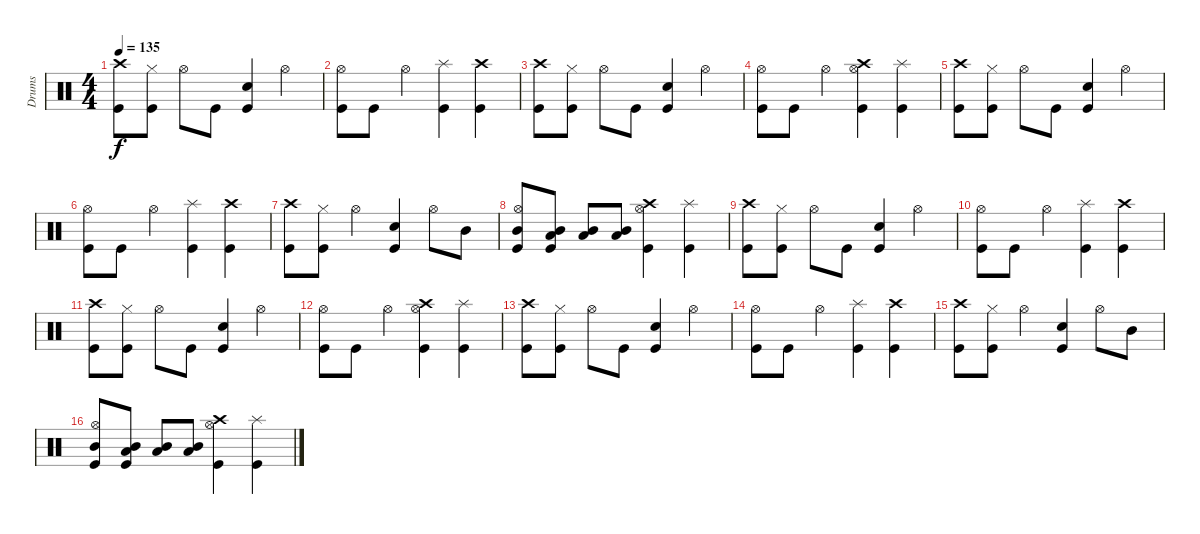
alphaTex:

\track ("Drums" "Drums") {instrument percussion}
\staff {score}
\articulation defaults
\ts (4 4)
\tempo 135
\clef neutral
\ks c
("Crash high (hit)" "Kick (hit)").8{dy f} ("Hi-Hat (closed)" "Kick (hit)").8 "Hi-Hat (open)".8 "Kick (hit)".8 ("Snare (hit) 2" "Kick (hit)").4 "Hi-Hat (open)".4 |
("Hi-Hat (open)" "Kick (hit)").8 "Kick (hit)".8 "Hi-Hat (open)".4 ("Splash (hit)" "Kick (hit)").4 ("Crash high (hit)" "Kick (hit)").4 |
("Crash high (hit)" "Kick (hit)").8 ("Hi-Hat (closed)" "Kick (hit)").8 "Hi-Hat (open)".8 "Kick (hit)".8 ("Snare (hit) 2" "Kick (hit)").4 "Hi-Hat (open)".4 |
("Hi-Hat (open)" "Kick (hit)").8 "Kick (hit)".8 "Hi-Hat (open)".4 ("Crash high (hit)" "Hi-Hat (open)" "Kick (hit)").4 ("Splash (hit)" "Kick (hit)").4 |
("Crash high (hit)" "Kick (hit)").8 ("Hi-Hat (closed)" "Kick (hit)").8 "Hi-Hat (open)".8 "Kick (hit)".8 ("Snare (hit) 2" "Kick (hit)").4 "Hi-Hat (open)".4 |
("Hi-Hat (open)" "Kick (hit)").8 "Kick (hit)".8 "Hi-Hat (open)".4 ("Splash (hit)" "Kick (hit)").4 ("Crash high (hit)" "Kick (hit)").4 |
("Crash high (hit)" "Kick (hit)").8 ("Hi-Hat (closed)" "Kick (hit)").8 "Hi-Hat (open)".4 ("Snare (hit) 2" "Kick (hit)").4 "Hi-Hat (open)".8 "Mid Tom (hit)".8 |
("Mid Tom (hit)" "Hi-Hat (open)" "Kick (hit)").8 ("Mid Tom (hit)" "Low Tom (hit)" "Kick (hit)").8 ("Mid Tom (hit)" "Low Tom (hit)").8 ("Mid Tom (hit)" "Low Tom (hit)").8 ("Crash high (hit)" "Hi-Hat (open)" "Kick (hit)").4 ("Splash (hit)" "Kick (hit)").4 |
("Crash high (hit)" "Kick (hit)").8 ("Hi-Hat (closed)" "Kick (hit)").8 "Hi-Hat (open)".8 "Kick (hit)".8 ("Snare (hit) 2" "Kick (hit)").4 "Hi-Hat (open)".4 |
("Hi-Hat (open)" "Kick (hit)").8 "Kick (hit)".8 "Hi-Hat (open)".4 ("Splash (hit)" "Kick (hit)").4 ("Crash high (hit)" "Kick (hit)").4 |
("Crash high (hit)" "Kick (hit)").8 ("Hi-Hat (closed)" "Kick (hit)").8 "Hi-Hat (open)".8 "Kick (hit)".8 ("Snare (hit) 2" "Kick (hit)").4 "Hi-Hat (open)".4 |
("Hi-Hat (open)" "Kick (hit)").8 "Kick (hit)".8 "Hi-Hat (open)".4 ("Crash high (hit)" "Hi-Hat (open)" "Kick (hit)").4 ("Splash (hit)" "Kick (hit)").4 |
("Crash high (hit)" "Kick (hit)").8 ("Hi-Hat (closed)" "Kick (hit)").8 "Hi-Hat (open)".8 "Kick (hit)".8 ("Snare (hit) 2" "Kick (hit)").4 "Hi-Hat (open)".4 |
("Hi-Hat (open)" "Kick (hit)").8 "Kick (hit)".8 "Hi-Hat (open)".4 ("Splash (hit)" "Kick (hit)").4 ("Crash high (hit)" "Kick (hit)").4 |
("Crash high (hit)" "Kick (hit)").8 ("Hi-Hat (closed)" "Kick (hit)").8 "Hi-Hat (open)".4 ("Snare (hit) 2" "Kick (hit)").4 "Hi-Hat (open)".8 "Mid Tom (hit)".8 |
("Mid Tom (hit)" "Hi-Hat (open)" "Kick (hit)").8 ("Mid Tom (hit)" "Low Tom (hit)" "Kick (hit)").8 ("Mid Tom (hit)" "Low Tom (hit)").8 ("Mid Tom (hit)" "Low Tom (hit)").8 ("Crash high (hit)" "Hi-Hat (open)" "Kick (hit)").4 ("Splash (hit)" "Kick (hit)").4
